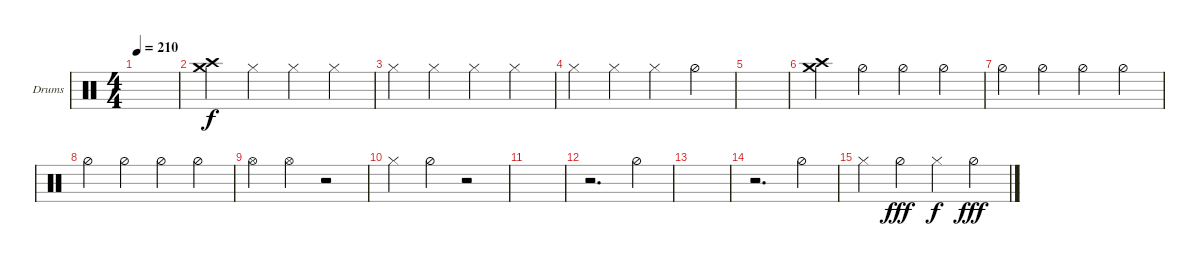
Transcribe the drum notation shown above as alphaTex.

\defaultSystemsLayout 4
\bracketExtendMode groupsimilarinstruments
\firstSystemTrackNameOrientation horizontal
\otherSystemsTrackNameOrientation horizontal
\track ("Helders" "Drums") {instrument percussion}
\staff {score}
\articulation defaults
\ts (4 4)
\tempo 210
\clef neutral
\ks c
|
("Crash medium (hit)" "Crash high (hit)").4 "Hi-Hat (closed)".4 "Hi-Hat (closed)".4 "Hi-Hat (closed)".4 |
"Hi-Hat (closed)".4 "Hi-Hat (closed)".4 "Hi-Hat (closed)".4 "Hi-Hat (closed)".4 |
"Hi-Hat (closed)".4 "Hi-Hat (closed)".4 "Hi-Hat (closed)".4 "Hi-Hat (half)".4 |
|
("Crash medium (hit)" "Crash high (hit)").4 "Hi-Hat (half)".4 "Hi-Hat (half)".4 "Hi-Hat (half)".4 |
"Hi-Hat (half)".4 "Hi-Hat (half)".4 "Hi-Hat (half)".4 "Hi-Hat (half)".4 |
"Hi-Hat (half)".4 "Hi-Hat (half)".4 "Hi-Hat (half)".4 "Hi-Hat (half)".4 |
"Hi-Hat (open)".4 "Hi-Hat (open)".4 r.2 |
"Hi-Hat (closed)".4 "Hi-Hat (half)".4 r.2 |
|
r.2{d} "Hi-Hat (half)".4 |
|
r.2{d} "Hi-Hat (half)".4 |
"Hi-Hat (closed)".4{dy f} "Hi-Hat (half)".4{dy fff} "Hi-Hat (closed)".4{dy f} "Hi-Hat (half)".4{dy fff}
